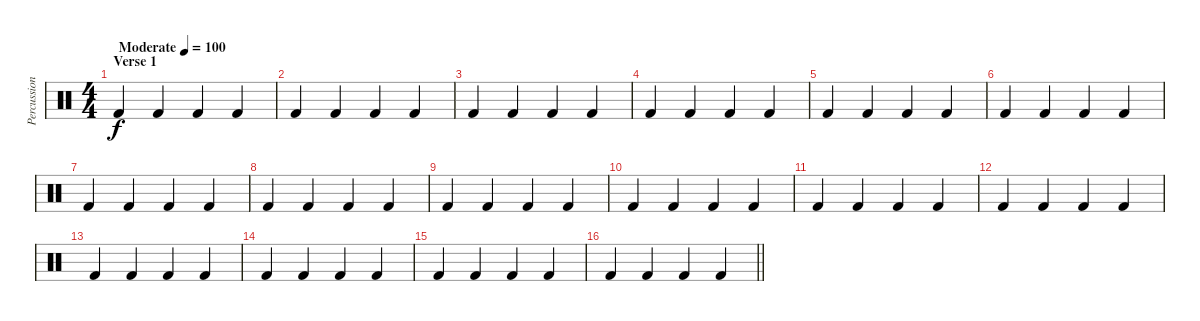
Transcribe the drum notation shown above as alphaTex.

\track ("Percussion" "Percussion") {instrument percussion}
\staff {score}
\articulation defaults
\ts (4 4)
\section ("" "Verse 1")
\tempo (100 "Moderate")
\clef neutral
\ks c "Kick (hit) 2".4{dy f} "Kick (hit) 2".4 "Kick (hit) 2".4 "Kick (hit) 2".4
|
"Kick (hit) 2".4 "Kick (hit) 2".4 "Kick (hit) 2".4 "Kick (hit) 2".4 |
"Kick (hit) 2".4 "Kick (hit) 2".4 "Kick (hit) 2".4 "Kick (hit) 2".4 |
"Kick (hit) 2".4 "Kick (hit) 2".4 "Kick (hit) 2".4 "Kick (hit) 2".4 |
"Kick (hit) 2".4 "Kick (hit) 2".4 "Kick (hit) 2".4 "Kick (hit) 2".4 |
"Kick (hit) 2".4 "Kick (hit) 2".4 "Kick (hit) 2".4 "Kick (hit) 2".4 |
"Kick (hit) 2".4 "Kick (hit) 2".4 "Kick (hit) 2".4 "Kick (hit) 2".4 |
"Kick (hit) 2".4 "Kick (hit) 2".4 "Kick (hit) 2".4 "Kick (hit) 2".4 |
"Kick (hit) 2".4 "Kick (hit) 2".4 "Kick (hit) 2".4 "Kick (hit) 2".4 |
"Kick (hit) 2".4 "Kick (hit) 2".4 "Kick (hit) 2".4 "Kick (hit) 2".4 |
"Kick (hit) 2".4 "Kick (hit) 2".4 "Kick (hit) 2".4 "Kick (hit) 2".4 |
"Kick (hit) 2".4 "Kick (hit) 2".4 "Kick (hit) 2".4 "Kick (hit) 2".4 |
"Kick (hit) 2".4 "Kick (hit) 2".4 "Kick (hit) 2".4 "Kick (hit) 2".4 |
"Kick (hit) 2".4 "Kick (hit) 2".4 "Kick (hit) 2".4 "Kick (hit) 2".4 |
"Kick (hit) 2".4 "Kick (hit) 2".4 "Kick (hit) 2".4 "Kick (hit) 2".4 |
\barLineRight lightlight "Kick (hit) 2".4 "Kick (hit) 2".4 "Kick (hit) 2".4 "Kick (hit) 2".4
